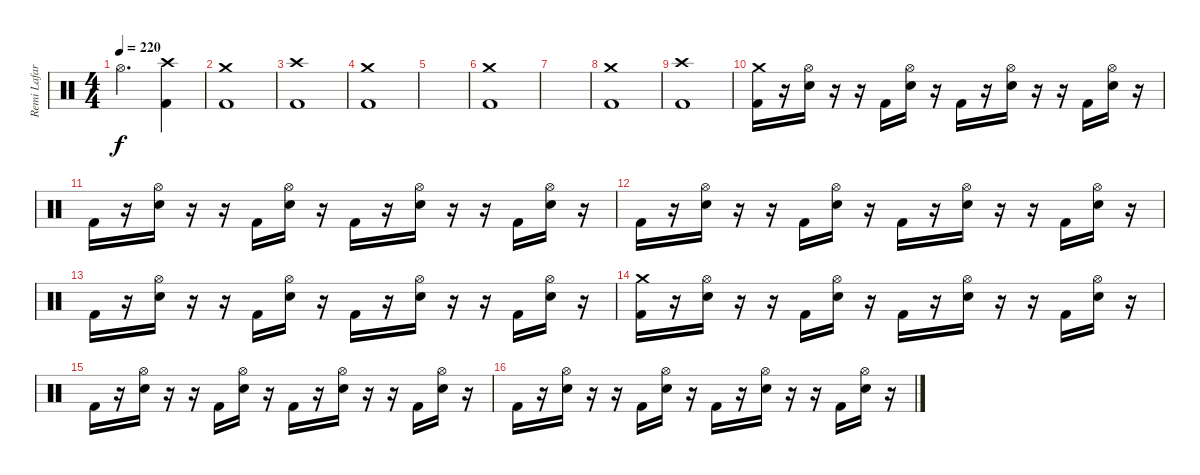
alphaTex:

\track ("Remi Lafargue " "Remi Lafar") {instrument percussion}
\staff {score}
\articulation defaults
\ts (4 4)
\tempo 220
\clef neutral
\ks c "Hi-Hat (open)".2{d dy f}
("Crash high (hit)" "Kick (hit) 2").4 |
("Crash medium (hit)" "Kick (hit) 2").1 |
("Crash high (hit)" "Kick (hit) 2").1 |
("Crash medium (hit)" "Kick (hit) 2").1 |
|
("Crash medium (hit)" "Kick (hit) 2").1 |
|
("Crash medium (hit)" "Kick (hit) 2").1 |
("Crash high (hit)" "Kick (hit) 2").1 |
("Crash medium (hit)" "Kick (hit) 2").16 r.16 ("Hi-Hat (open)" "Snare (hit) 2").16 r.16 r.16 "Kick (hit) 2".16 ("Hi-Hat (open)" "Snare (hit) 2").16 r.16 "Kick (hit) 2".16 r.16 ("Hi-Hat (open)" "Snare (hit) 2").16 r.16 r.16 "Kick (hit) 2".16 ("Hi-Hat (open)" "Snare (hit) 2").16 r.16 |
"Kick (hit) 2".16 r.16 ("Hi-Hat (open)" "Snare (hit) 2").16 r.16 r.16 "Kick (hit) 2".16 ("Hi-Hat (open)" "Snare (hit) 2").16 r.16 "Kick (hit) 2".16 r.16 ("Hi-Hat (open)" "Snare (hit) 2").16 r.16 r.16 "Kick (hit) 2".16 ("Hi-Hat (open)" "Snare (hit) 2").16 r.16 |
"Kick (hit) 2".16 r.16 ("Hi-Hat (open)" "Snare (hit) 2").16 r.16 r.16 "Kick (hit) 2".16 ("Hi-Hat (open)" "Snare (hit) 2").16 r.16 "Kick (hit) 2".16 r.16 ("Hi-Hat (open)" "Snare (hit) 2").16 r.16 r.16 "Kick (hit) 2".16 ("Hi-Hat (open)" "Snare (hit) 2").16 r.16 |
"Kick (hit) 2".16 r.16 ("Hi-Hat (open)" "Snare (hit) 2").16 r.16 r.16 "Kick (hit) 2".16 ("Hi-Hat (open)" "Snare (hit) 2").16 r.16 "Kick (hit) 2".16 r.16 ("Hi-Hat (open)" "Snare (hit) 2").16 r.16 r.16 "Kick (hit) 2".16 ("Hi-Hat (open)" "Snare (hit) 2").16 r.16 |
("Crash medium (hit)" "Kick (hit) 2").16 r.16 ("Hi-Hat (open)" "Snare (hit) 2").16 r.16 r.16 "Kick (hit) 2".16 ("Hi-Hat (open)" "Snare (hit) 2").16 r.16 "Kick (hit) 2".16 r.16 ("Hi-Hat (open)" "Snare (hit) 2").16 r.16 r.16 "Kick (hit) 2".16 ("Hi-Hat (open)" "Snare (hit) 2").16 r.16 |
"Kick (hit) 2".16 r.16 ("Hi-Hat (open)" "Snare (hit) 2").16 r.16 r.16 "Kick (hit) 2".16 ("Hi-Hat (open)" "Snare (hit) 2").16 r.16 "Kick (hit) 2".16 r.16 ("Hi-Hat (open)" "Snare (hit) 2").16 r.16 r.16 "Kick (hit) 2".16 ("Hi-Hat (open)" "Snare (hit) 2").16 r.16 |
"Kick (hit) 2".16 r.16 ("Hi-Hat (open)" "Snare (hit) 2").16 r.16 r.16 "Kick (hit) 2".16 ("Hi-Hat (open)" "Snare (hit) 2").16 r.16 "Kick (hit) 2".16 r.16 ("Hi-Hat (open)" "Snare (hit) 2").16 r.16 r.16 "Kick (hit) 2".16 ("Hi-Hat (open)" "Snare (hit) 2").16 r.16
